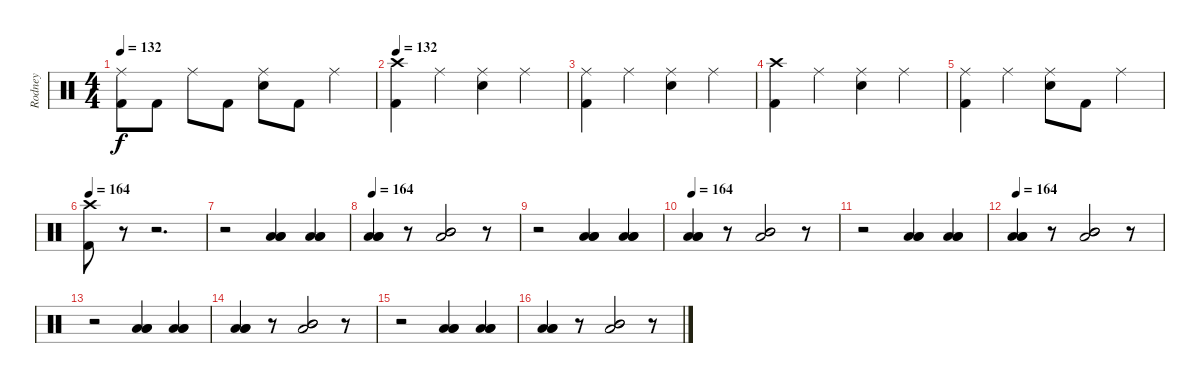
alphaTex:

\track ("Rodney" "Rodney") {instrument percussion}
\staff {score}
\articulation defaults
\ts (4 4)
\tempo 132
\clef neutral
\ks c
("Ride (middle)" "Kick (hit) 2").8{dy f} "Kick (hit) 2".8 "Ride (middle)".8 "Kick (hit) 2".8 ("Ride (middle)" "Snare (hit) 2").8 "Kick (hit) 2".8 "Ride (middle)".4 |
\tempo 132
("Crash high (hit)" "Kick (hit) 2").4 "Ride (middle)".4 ("Ride (middle)" "Snare (hit) 2").4 "Ride (middle)".4 |
("Ride (middle)" "Kick (hit) 2").4 "Ride (middle)".4 ("Ride (middle)" "Snare (hit) 2").4 "Ride (middle)".4 |
("Crash high (hit)" "Kick (hit) 2").4 "Ride (middle)".4 ("Ride (middle)" "Snare (hit) 2").4 "Ride (middle)".4 |
("Ride (middle)" "Kick (hit) 2").4 "Ride (middle)".4 ("Ride (middle)" "Snare (hit) 2").8 "Kick (hit) 2".8 "Ride (middle)".4 |
\tempo 150
\tempo 164
("Crash high (hit)" "Kick (hit) 2").8 r.8 r.2{d} |
r.2 ("Low Tom (hit)" "Low Floor Tom (hit)" "Low Tom (hit)").4 ("Low Tom (hit)" "Low Floor Tom (hit)" "Low Tom (hit)").4 |
\tempo 150
\tempo 164
("Low Tom (hit)" "Low Floor Tom (hit)" "Low Tom (hit)").4 r.8 ("Mid Tom (hit)" "Low Tom (hit)" "Mid Tom (hit)").2 r.8 |
r.2 ("Low Tom (hit)" "Low Floor Tom (hit)" "Low Tom (hit)").4 ("Low Tom (hit)" "Low Floor Tom (hit)" "Low Tom (hit)").4 |
\tempo 150
\tempo 164
("Low Tom (hit)" "Low Floor Tom (hit)" "Low Tom (hit)").4 r.8 ("Mid Tom (hit)" "Low Tom (hit)" "Mid Tom (hit)").2 r.8 |
r.2 ("Low Tom (hit)" "Low Floor Tom (hit)" "Low Tom (hit)").4 ("Low Tom (hit)" "Low Floor Tom (hit)" "Low Tom (hit)").4 |
\tempo 150
\tempo 164
("Low Tom (hit)" "Low Floor Tom (hit)" "Low Tom (hit)").4 r.8 ("Mid Tom (hit)" "Low Tom (hit)" "Mid Tom (hit)").2 r.8 |
r.2 ("Low Tom (hit)" "Low Floor Tom (hit)" "Low Tom (hit)").4 ("Low Tom (hit)" "Low Floor Tom (hit)" "Low Tom (hit)").4 |
("Low Tom (hit)" "Low Floor Tom (hit)" "Low Tom (hit)").4 r.8 ("Mid Tom (hit)" "Low Tom (hit)" "Mid Tom (hit)").2 r.8 |
r.2 ("Low Tom (hit)" "Low Floor Tom (hit)" "Low Tom (hit)").4 ("Low Tom (hit)" "Low Floor Tom (hit)" "Low Tom (hit)").4 |
("Low Tom (hit)" "Low Floor Tom (hit)" "Low Tom (hit)").4 r.8 ("Mid Tom (hit)" "Low Tom (hit)" "Mid Tom (hit)").2 r.8
